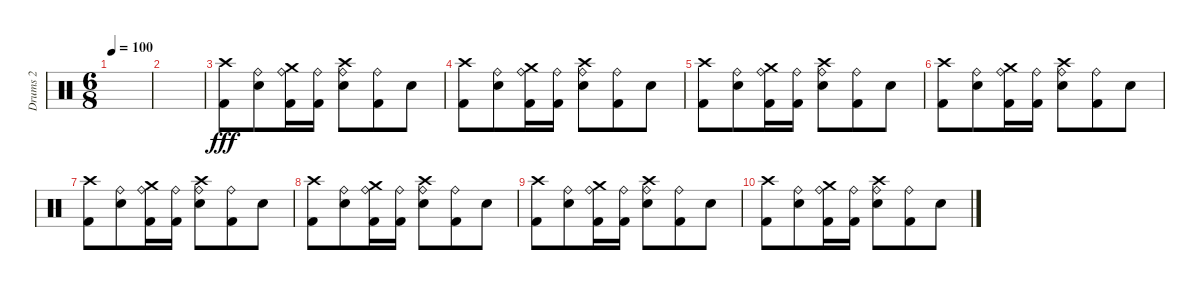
\track ("Drums 2" "Drums 2") {instrument percussion}
\staff {score}
\articulation defaults
\ts (6 8)
\tempo 100
\clef neutral
\ks c
|
|
("Kick (hit) 2" "Crash high (hit)").8{dy fff} ("Snare (hit) 2" "Ride (bell)").8 ("Kick (hit) 2" "Ride (bell)" "Crash medium (hit)").16 ("Kick (hit) 2" "Ride (bell)").16 ("Snare (hit) 2" "Ride (bell)" "Crash high (hit)").8 ("Kick (hit) 2" "Ride (bell)").8 "Snare (hit) 2".8 |
("Kick (hit) 2" "Crash high (hit)").8 ("Snare (hit) 2" "Ride (bell)").8 ("Kick (hit) 2" "Ride (bell)" "Crash medium (hit)").16 ("Kick (hit) 2" "Ride (bell)").16 ("Snare (hit) 2" "Ride (bell)" "Crash high (hit)").8 ("Kick (hit) 2" "Ride (bell)").8 "Snare (hit) 2".8 |
("Kick (hit) 2" "Crash high (hit)").8 ("Snare (hit) 2" "Ride (bell)").8 ("Kick (hit) 2" "Ride (bell)" "Crash medium (hit)").16 ("Kick (hit) 2" "Ride (bell)").16 ("Snare (hit) 2" "Ride (bell)" "Crash high (hit)").8 ("Kick (hit) 2" "Ride (bell)").8 "Snare (hit) 2".8 |
("Kick (hit) 2" "Crash high (hit)").8 ("Snare (hit) 2" "Ride (bell)").8 ("Kick (hit) 2" "Ride (bell)" "Crash medium (hit)").16 ("Kick (hit) 2" "Ride (bell)").16 ("Snare (hit) 2" "Ride (bell)" "Crash high (hit)").8 ("Kick (hit) 2" "Ride (bell)").8 "Snare (hit) 2".8 |
("Kick (hit) 2" "Crash high (hit)").8 ("Snare (hit) 2" "Ride (bell)").8 ("Kick (hit) 2" "Ride (bell)" "Crash medium (hit)").16 ("Kick (hit) 2" "Ride (bell)").16 ("Snare (hit) 2" "Ride (bell)" "Crash high (hit)").8 ("Kick (hit) 2" "Ride (bell)").8 "Snare (hit) 2".8 |
("Kick (hit) 2" "Crash high (hit)").8 ("Snare (hit) 2" "Ride (bell)").8 ("Kick (hit) 2" "Ride (bell)" "Crash medium (hit)").16 ("Kick (hit) 2" "Ride (bell)").16 ("Snare (hit) 2" "Ride (bell)" "Crash high (hit)").8 ("Kick (hit) 2" "Ride (bell)").8 "Snare (hit) 2".8 |
("Kick (hit) 2" "Crash high (hit)").8 ("Snare (hit) 2" "Ride (bell)").8 ("Kick (hit) 2" "Ride (bell)" "Crash medium (hit)").16 ("Kick (hit) 2" "Ride (bell)").16 ("Snare (hit) 2" "Ride (bell)" "Crash high (hit)").8 ("Kick (hit) 2" "Ride (bell)").8 "Snare (hit) 2".8 |
("Kick (hit) 2" "Crash high (hit)").8 ("Snare (hit) 2" "Ride (bell)").8 ("Kick (hit) 2" "Ride (bell)" "Crash medium (hit)").16 ("Kick (hit) 2" "Ride (bell)").16 ("Snare (hit) 2" "Ride (bell)" "Crash high (hit)").8 ("Kick (hit) 2" "Ride (bell)").8 "Snare (hit) 2".8
